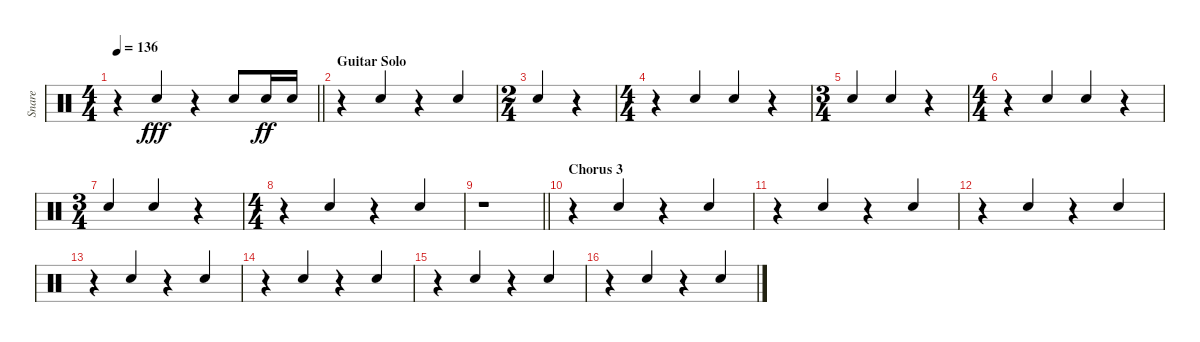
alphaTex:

\track ("Snare" "Snare") {instrument percussion}
\staff {score}
\articulation defaults
\ts (4 4)
\tempo 136
\clef neutral
\barLineRight lightlight
\ks c
r.4{dy fff} "Electric Snare (hit)".4{beam Up} r.4{beam merge} "Electric Snare (hit)".8{beam Up} "Electric Snare (hit)".16{dy ff beam Up} "Electric Snare (hit)".16{beam Up} |
\section ("" "Guitar Solo")
r.4 "Electric Snare (hit)".4{beam Up} r.4{beam merge} "Electric Snare (hit)".4{beam Up} |
\ts (2 4)
"Electric Snare (hit)".4{beam Up} r.4 |
\ts (4 4)
r.4{beam merge} "Electric Snare (hit)".4{beam Up} "Electric Snare (hit)".4{beam Up} r.4 |
\ts (3 4)
"Electric Snare (hit)".4{beam Up} "Electric Snare (hit)".4{beam Up} r.4 |
\ts (4 4)
r.4{beam merge} "Electric Snare (hit)".4{beam Up} "Electric Snare (hit)".4{beam Up} r.4 |
\ts (3 4)
"Electric Snare (hit)".4{beam Up} "Electric Snare (hit)".4{beam Up} r.4 |
\ts (4 4)
r.4{beam merge} "Electric Snare (hit)".4{beam Up} r.4 "Electric Snare (hit)".4{beam Up} |
\barLineRight lightlight
r.1 |
\section ("" "Chorus 3")
r.4 "Electric Snare (hit)".4{beam Up} r.4{beam merge} "Electric Snare (hit)".4{beam Up} |
r.4 "Electric Snare (hit)".4{beam Up} r.4{beam merge} "Electric Snare (hit)".4{beam Up} |
r.4 "Electric Snare (hit)".4{beam Up} r.4{beam merge} "Electric Snare (hit)".4{beam Up} |
r.4 "Electric Snare (hit)".4{beam Up} r.4{beam merge} "Electric Snare (hit)".4{beam Up} |
r.4 "Electric Snare (hit)".4{beam Up} r.4{beam merge} "Electric Snare (hit)".4{beam Up} |
r.4{beam merge} "Electric Snare (hit)".4{beam Up} r.4{beam merge} "Electric Snare (hit)".4{beam Up} |
r.4 "Electric Snare (hit)".4{beam Up} r.4{beam merge} "Electric Snare (hit)".4{beam Up}
